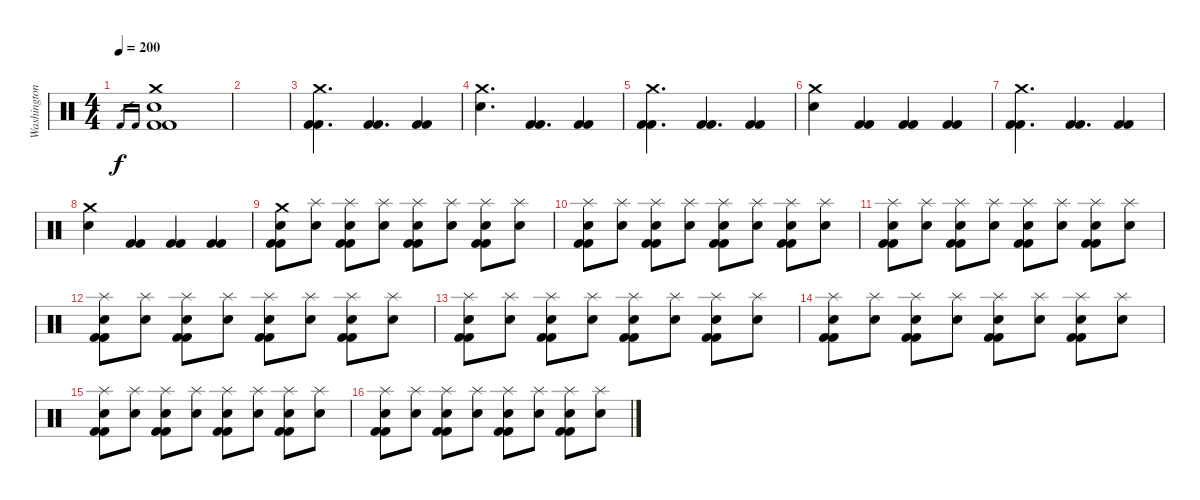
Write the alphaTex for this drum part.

\track ("Washington" "Washington") {instrument percussion}
\staff {score}
\articulation defaults
\ts (4 4)
\tempo 200
\clef neutral
\ks c "Kick (hit) 2".16{gr dy f} "Kick (hit) 2".16{gr}
("Crash medium (hit)" "Electric Snare (hit)" "Kick (hit) 2" "Kick (hit) 2").1 |
|
("Crash medium (hit)" "Kick (hit) 2" "Kick (hit) 2").4{d} ("Kick (hit) 2" "Kick (hit) 2").4{d} ("Kick (hit) 2" "Kick (hit) 2").4 |
("Crash medium (hit)" "Electric Snare (hit)").4{d} ("Kick (hit) 2" "Kick (hit) 2").4{d} ("Kick (hit) 2" "Kick (hit) 2").4 |
("Crash medium (hit)" "Kick (hit) 2" "Kick (hit) 2").4{d} ("Kick (hit) 2" "Kick (hit) 2").4{d} ("Kick (hit) 2" "Kick (hit) 2").4 |
("Crash medium (hit)" "Electric Snare (hit)").4 ("Kick (hit) 2" "Kick (hit) 2").4 ("Kick (hit) 2" "Kick (hit) 2").4 ("Kick (hit) 2" "Kick (hit) 2").4 |
("Crash medium (hit)" "Kick (hit) 2" "Kick (hit) 2").4{d} ("Kick (hit) 2" "Kick (hit) 2").4{d} ("Kick (hit) 2" "Kick (hit) 2").4 |
("Crash medium (hit)" "Electric Snare (hit)").4 ("Kick (hit) 2" "Kick (hit) 2").4 ("Kick (hit) 2" "Kick (hit) 2").4 ("Kick (hit) 2" "Kick (hit) 2").4 |
("Crash medium (hit)" "Electric Snare (hit)" "Kick (hit) 2" "Kick (hit) 2").8 ("Splash (hit)" "Electric Snare (hit)").8 ("Splash (hit)" "Electric Snare (hit)" "Kick (hit) 2" "Kick (hit) 2").8 ("Splash (hit)" "Electric Snare (hit)").8 ("Splash (hit)" "Electric Snare (hit)" "Kick (hit) 2" "Kick (hit) 2").8 ("Splash (hit)" "Electric Snare (hit)").8 ("Splash (hit)" "Electric Snare (hit)" "Kick (hit) 2" "Kick (hit) 2").8 ("Splash (hit)" "Electric Snare (hit)").8 |
("Splash (hit)" "Electric Snare (hit)" "Kick (hit) 2" "Kick (hit) 2").8 ("Splash (hit)" "Electric Snare (hit)").8 ("Splash (hit)" "Electric Snare (hit)" "Kick (hit) 2" "Kick (hit) 2").8 ("Splash (hit)" "Electric Snare (hit)").8 ("Splash (hit)" "Electric Snare (hit)" "Kick (hit) 2" "Kick (hit) 2").8 ("Splash (hit)" "Electric Snare (hit)").8 ("Splash (hit)" "Electric Snare (hit)" "Kick (hit) 2" "Kick (hit) 2").8 ("Splash (hit)" "Electric Snare (hit)").8 |
("Splash (hit)" "Electric Snare (hit)" "Kick (hit) 2" "Kick (hit) 2").8 ("Splash (hit)" "Electric Snare (hit)").8 ("Splash (hit)" "Electric Snare (hit)" "Kick (hit) 2" "Kick (hit) 2").8 ("Splash (hit)" "Electric Snare (hit)").8 ("Splash (hit)" "Electric Snare (hit)" "Kick (hit) 2" "Kick (hit) 2").8 ("Splash (hit)" "Electric Snare (hit)").8 ("Splash (hit)" "Electric Snare (hit)" "Kick (hit) 2" "Kick (hit) 2").8 ("Splash (hit)" "Electric Snare (hit)").8 |
("Splash (hit)" "Electric Snare (hit)" "Kick (hit) 2" "Kick (hit) 2").8 ("Splash (hit)" "Electric Snare (hit)").8 ("Splash (hit)" "Electric Snare (hit)" "Kick (hit) 2" "Kick (hit) 2").8 ("Splash (hit)" "Electric Snare (hit)").8 ("Splash (hit)" "Electric Snare (hit)" "Kick (hit) 2" "Kick (hit) 2").8 ("Splash (hit)" "Electric Snare (hit)").8 ("Splash (hit)" "Electric Snare (hit)" "Kick (hit) 2" "Kick (hit) 2").8 ("Splash (hit)" "Electric Snare (hit)").8 |
("Splash (hit)" "Electric Snare (hit)" "Kick (hit) 2" "Kick (hit) 2").8 ("Splash (hit)" "Electric Snare (hit)").8 ("Splash (hit)" "Electric Snare (hit)" "Kick (hit) 2" "Kick (hit) 2").8 ("Splash (hit)" "Electric Snare (hit)").8 ("Splash (hit)" "Electric Snare (hit)" "Kick (hit) 2" "Kick (hit) 2").8 ("Splash (hit)" "Electric Snare (hit)").8 ("Splash (hit)" "Electric Snare (hit)" "Kick (hit) 2" "Kick (hit) 2").8 ("Splash (hit)" "Electric Snare (hit)").8 |
("Splash (hit)" "Electric Snare (hit)" "Kick (hit) 2" "Kick (hit) 2").8 ("Splash (hit)" "Electric Snare (hit)").8 ("Splash (hit)" "Electric Snare (hit)" "Kick (hit) 2" "Kick (hit) 2").8 ("Splash (hit)" "Electric Snare (hit)").8 ("Splash (hit)" "Electric Snare (hit)" "Kick (hit) 2" "Kick (hit) 2").8 ("Splash (hit)" "Electric Snare (hit)").8 ("Splash (hit)" "Electric Snare (hit)" "Kick (hit) 2" "Kick (hit) 2").8 ("Splash (hit)" "Electric Snare (hit)").8 |
("Splash (hit)" "Electric Snare (hit)" "Kick (hit) 2" "Kick (hit) 2").8 ("Splash (hit)" "Electric Snare (hit)").8 ("Splash (hit)" "Electric Snare (hit)" "Kick (hit) 2" "Kick (hit) 2").8 ("Splash (hit)" "Electric Snare (hit)").8 ("Splash (hit)" "Electric Snare (hit)" "Kick (hit) 2" "Kick (hit) 2").8 ("Splash (hit)" "Electric Snare (hit)").8 ("Splash (hit)" "Electric Snare (hit)" "Kick (hit) 2" "Kick (hit) 2").8 ("Splash (hit)" "Electric Snare (hit)").8 |
("Splash (hit)" "Electric Snare (hit)" "Kick (hit) 2" "Kick (hit) 2").8 ("Splash (hit)" "Electric Snare (hit)").8 ("Splash (hit)" "Electric Snare (hit)" "Kick (hit) 2" "Kick (hit) 2").8 ("Splash (hit)" "Electric Snare (hit)").8 ("Splash (hit)" "Electric Snare (hit)" "Kick (hit) 2" "Kick (hit) 2").8 ("Splash (hit)" "Electric Snare (hit)").8 ("Splash (hit)" "Electric Snare (hit)" "Kick (hit) 2" "Kick (hit) 2").8 ("Splash (hit)" "Electric Snare (hit)").8
